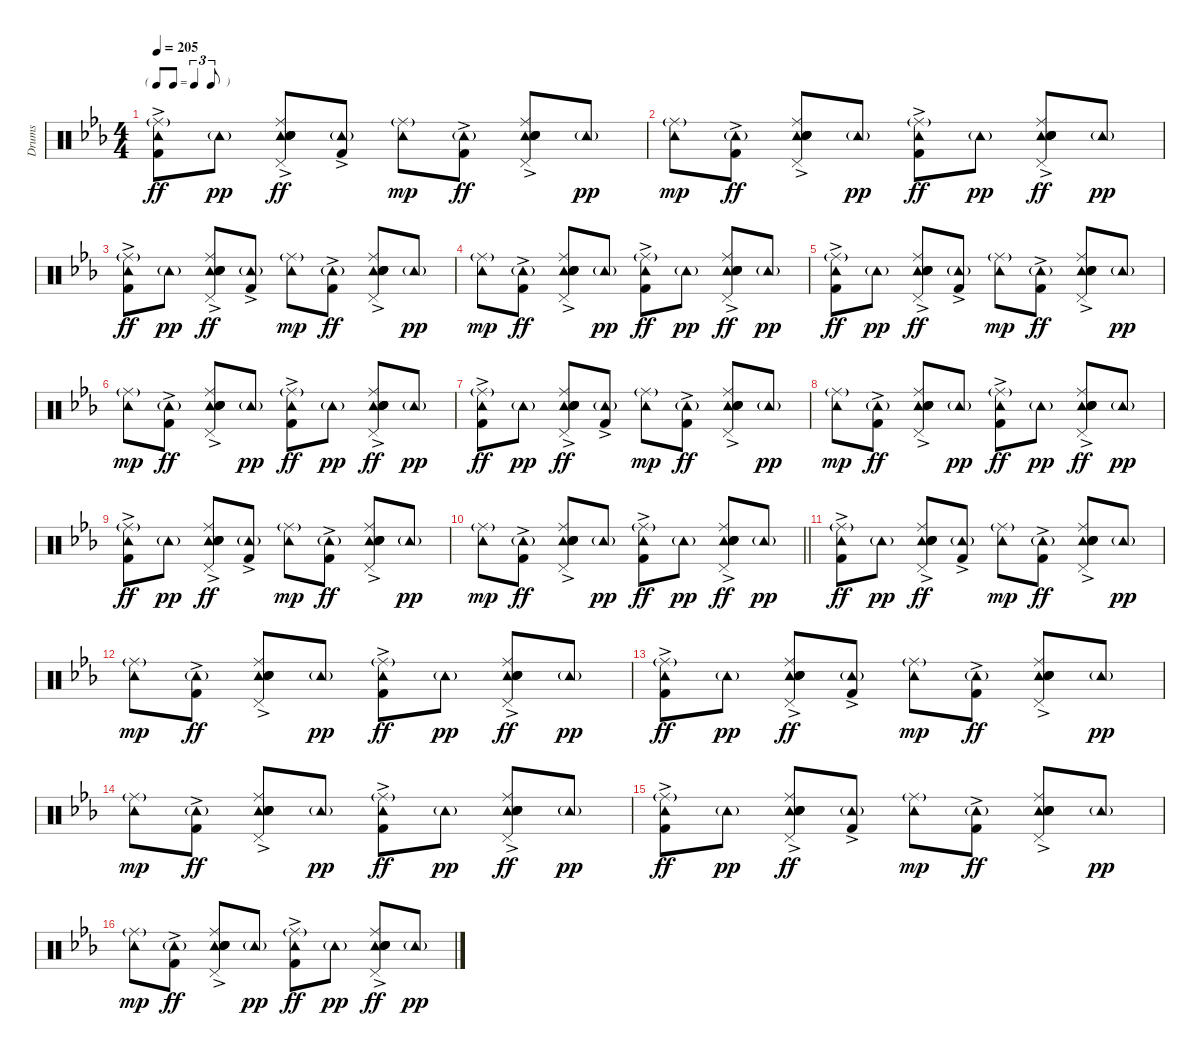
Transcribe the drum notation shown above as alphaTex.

\track ("Drums" "Drums") {instrument percussion}
\staff {score}
\articulation defaults
\ts (4 4)
\tf triplet8th
\tempo 205
\clef neutral
\ks eb
("Ride (middle)"{g} "Tambourine (hit)" "Kick (hit) 2"{ac}).8{dy ff} "Tambourine (hit)"{g}.8{dy pp} ("Ride (middle)" "Tambourine (hit)"{ac} "Hand Clap (hit)" "Electric Snare (hit)"{ac} "Snare (hit) 2" "Pedal Hi-Hat (hit)").8{dy ff} ("Tambourine (hit)"{g} "Kick (hit) 2"{ac}).8 ("Ride (middle)"{g} "Tambourine (hit)").8{dy mp} ("Tambourine (hit)"{g} "Kick (hit) 2"{ac}).8{dy ff} ("Ride (middle)" "Tambourine (hit)"{ac} "Hand Clap (hit)" "Electric Snare (hit)"{ac} "Snare (hit) 2" "Pedal Hi-Hat (hit)").8 "Tambourine (hit)"{g}.8{dy pp} |
("Ride (middle)"{g} "Tambourine (hit)").8{dy mp} ("Tambourine (hit)"{g} "Kick (hit) 2"{ac}).8{dy ff} ("Ride (middle)" "Tambourine (hit)"{ac} "Hand Clap (hit)" "Electric Snare (hit)"{ac} "Snare (hit) 2" "Pedal Hi-Hat (hit)").8 "Tambourine (hit)"{g}.8{dy pp} ("Ride (middle)"{g} "Tambourine (hit)" "Kick (hit) 2"{ac}).8{dy ff} "Tambourine (hit)"{g}.8{dy pp} ("Ride (middle)" "Tambourine (hit)"{ac} "Hand Clap (hit)" "Electric Snare (hit)"{ac} "Snare (hit) 2" "Pedal Hi-Hat (hit)").8{dy ff} "Tambourine (hit)"{g}.8{dy pp} |
("Ride (middle)"{g} "Tambourine (hit)" "Kick (hit) 2"{ac}).8{dy ff} "Tambourine (hit)"{g}.8{dy pp} ("Ride (middle)" "Tambourine (hit)"{ac} "Hand Clap (hit)" "Electric Snare (hit)"{ac} "Snare (hit) 2" "Pedal Hi-Hat (hit)").8{dy ff} ("Tambourine (hit)"{g} "Kick (hit) 2"{ac}).8 ("Ride (middle)"{g} "Tambourine (hit)").8{dy mp} ("Tambourine (hit)"{g} "Kick (hit) 2"{ac}).8{dy ff} ("Ride (middle)" "Tambourine (hit)"{ac} "Hand Clap (hit)" "Electric Snare (hit)"{ac} "Snare (hit) 2" "Pedal Hi-Hat (hit)").8 "Tambourine (hit)"{g}.8{dy pp} |
("Ride (middle)"{g} "Tambourine (hit)").8{dy mp} ("Tambourine (hit)"{g} "Kick (hit) 2"{ac}).8{dy ff} ("Ride (middle)" "Tambourine (hit)"{ac} "Hand Clap (hit)" "Electric Snare (hit)"{ac} "Snare (hit) 2" "Pedal Hi-Hat (hit)").8 "Tambourine (hit)"{g}.8{dy pp} ("Ride (middle)"{g} "Tambourine (hit)" "Kick (hit) 2"{ac}).8{dy ff} "Tambourine (hit)"{g}.8{dy pp} ("Ride (middle)" "Tambourine (hit)"{ac} "Hand Clap (hit)" "Electric Snare (hit)"{ac} "Snare (hit) 2" "Pedal Hi-Hat (hit)").8{dy ff} "Tambourine (hit)"{g}.8{dy pp} |
("Ride (middle)"{g} "Tambourine (hit)" "Kick (hit) 2"{ac}).8{dy ff} "Tambourine (hit)"{g}.8{dy pp} ("Ride (middle)" "Tambourine (hit)"{ac} "Hand Clap (hit)" "Electric Snare (hit)"{ac} "Snare (hit) 2" "Pedal Hi-Hat (hit)").8{dy ff} ("Tambourine (hit)"{g} "Kick (hit) 2"{ac}).8 ("Ride (middle)"{g} "Tambourine (hit)").8{dy mp} ("Tambourine (hit)"{g} "Kick (hit) 2"{ac}).8{dy ff} ("Ride (middle)" "Tambourine (hit)"{ac} "Hand Clap (hit)" "Electric Snare (hit)"{ac} "Snare (hit) 2" "Pedal Hi-Hat (hit)").8 "Tambourine (hit)"{g}.8{dy pp} |
("Ride (middle)"{g} "Tambourine (hit)").8{dy mp} ("Tambourine (hit)"{g} "Kick (hit) 2"{ac}).8{dy ff} ("Ride (middle)" "Tambourine (hit)"{ac} "Hand Clap (hit)" "Electric Snare (hit)"{ac} "Snare (hit) 2" "Pedal Hi-Hat (hit)").8 "Tambourine (hit)"{g}.8{dy pp} ("Ride (middle)"{g} "Tambourine (hit)" "Kick (hit) 2"{ac}).8{dy ff} "Tambourine (hit)"{g}.8{dy pp} ("Ride (middle)" "Tambourine (hit)"{ac} "Hand Clap (hit)" "Electric Snare (hit)"{ac} "Snare (hit) 2" "Pedal Hi-Hat (hit)").8{dy ff} "Tambourine (hit)"{g}.8{dy pp} |
("Ride (middle)"{g} "Tambourine (hit)" "Kick (hit) 2"{ac}).8{dy ff} "Tambourine (hit)"{g}.8{dy pp} ("Ride (middle)" "Tambourine (hit)"{ac} "Hand Clap (hit)" "Electric Snare (hit)"{ac} "Snare (hit) 2" "Pedal Hi-Hat (hit)").8{dy ff} ("Tambourine (hit)"{g} "Kick (hit) 2"{ac}).8 ("Ride (middle)"{g} "Tambourine (hit)").8{dy mp} ("Tambourine (hit)"{g} "Kick (hit) 2"{ac}).8{dy ff} ("Ride (middle)" "Tambourine (hit)"{ac} "Hand Clap (hit)" "Electric Snare (hit)"{ac} "Snare (hit) 2" "Pedal Hi-Hat (hit)").8 "Tambourine (hit)"{g}.8{dy pp} |
("Ride (middle)"{g} "Tambourine (hit)").8{dy mp} ("Tambourine (hit)"{g} "Kick (hit) 2"{ac}).8{dy ff} ("Ride (middle)" "Tambourine (hit)"{ac} "Hand Clap (hit)" "Electric Snare (hit)"{ac} "Snare (hit) 2" "Pedal Hi-Hat (hit)").8 "Tambourine (hit)"{g}.8{dy pp} ("Ride (middle)"{g} "Tambourine (hit)" "Kick (hit) 2"{ac}).8{dy ff} "Tambourine (hit)"{g}.8{dy pp} ("Ride (middle)" "Tambourine (hit)"{ac} "Hand Clap (hit)" "Electric Snare (hit)"{ac} "Snare (hit) 2" "Pedal Hi-Hat (hit)").8{dy ff} "Tambourine (hit)"{g}.8{dy pp} |
("Ride (middle)"{g} "Tambourine (hit)" "Kick (hit) 2"{ac}).8{dy ff} "Tambourine (hit)"{g}.8{dy pp} ("Ride (middle)" "Tambourine (hit)"{ac} "Hand Clap (hit)" "Electric Snare (hit)"{ac} "Snare (hit) 2" "Pedal Hi-Hat (hit)").8{dy ff} ("Tambourine (hit)"{g} "Kick (hit) 2"{ac}).8 ("Ride (middle)"{g} "Tambourine (hit)").8{dy mp} ("Tambourine (hit)"{g} "Kick (hit) 2"{ac}).8{dy ff} ("Ride (middle)" "Tambourine (hit)"{ac} "Hand Clap (hit)" "Electric Snare (hit)"{ac} "Snare (hit) 2" "Pedal Hi-Hat (hit)").8 "Tambourine (hit)"{g}.8{dy pp} |
\barLineRight lightlight
("Ride (middle)"{g} "Tambourine (hit)").8{dy mp} ("Tambourine (hit)"{g} "Kick (hit) 2"{ac}).8{dy ff} ("Ride (middle)" "Tambourine (hit)"{ac} "Hand Clap (hit)" "Electric Snare (hit)"{ac} "Snare (hit) 2" "Pedal Hi-Hat (hit)").8 "Tambourine (hit)"{g}.8{dy pp} ("Ride (middle)"{g} "Tambourine (hit)" "Kick (hit) 2"{ac}).8{dy ff} "Tambourine (hit)"{g}.8{dy pp} ("Ride (middle)" "Tambourine (hit)"{ac} "Hand Clap (hit)" "Electric Snare (hit)"{ac} "Snare (hit) 2" "Pedal Hi-Hat (hit)").8{dy ff} "Tambourine (hit)"{g}.8{dy pp} |
("Ride (middle)"{g} "Tambourine (hit)" "Kick (hit) 2"{ac}).8{dy ff} "Tambourine (hit)"{g}.8{dy pp} ("Ride (middle)" "Tambourine (hit)"{ac} "Hand Clap (hit)" "Electric Snare (hit)"{ac} "Snare (hit) 2" "Pedal Hi-Hat (hit)").8{dy ff} ("Tambourine (hit)"{g} "Kick (hit) 2"{ac}).8 ("Ride (middle)"{g} "Tambourine (hit)").8{dy mp} ("Tambourine (hit)"{g} "Kick (hit) 2"{ac}).8{dy ff} ("Ride (middle)" "Tambourine (hit)"{ac} "Hand Clap (hit)" "Electric Snare (hit)"{ac} "Snare (hit) 2" "Pedal Hi-Hat (hit)").8 "Tambourine (hit)"{g}.8{dy pp} |
("Ride (middle)"{g} "Tambourine (hit)").8{dy mp} ("Tambourine (hit)"{g} "Kick (hit) 2"{ac}).8{dy ff} ("Ride (middle)" "Tambourine (hit)"{ac} "Hand Clap (hit)" "Electric Snare (hit)"{ac} "Snare (hit) 2" "Pedal Hi-Hat (hit)").8 "Tambourine (hit)"{g}.8{dy pp} ("Ride (middle)"{g} "Tambourine (hit)" "Kick (hit) 2"{ac}).8{dy ff} "Tambourine (hit)"{g}.8{dy pp} ("Ride (middle)" "Tambourine (hit)"{ac} "Hand Clap (hit)" "Electric Snare (hit)"{ac} "Snare (hit) 2" "Pedal Hi-Hat (hit)").8{dy ff} "Tambourine (hit)"{g}.8{dy pp} |
("Ride (middle)"{g} "Tambourine (hit)" "Kick (hit) 2"{ac}).8{dy ff} "Tambourine (hit)"{g}.8{dy pp} ("Ride (middle)" "Tambourine (hit)"{ac} "Hand Clap (hit)" "Electric Snare (hit)"{ac} "Snare (hit) 2" "Pedal Hi-Hat (hit)").8{dy ff} ("Tambourine (hit)"{g} "Kick (hit) 2"{ac}).8 ("Ride (middle)"{g} "Tambourine (hit)").8{dy mp} ("Tambourine (hit)"{g} "Kick (hit) 2"{ac}).8{dy ff} ("Ride (middle)" "Tambourine (hit)"{ac} "Hand Clap (hit)" "Electric Snare (hit)"{ac} "Snare (hit) 2" "Pedal Hi-Hat (hit)").8 "Tambourine (hit)"{g}.8{dy pp} |
("Ride (middle)"{g} "Tambourine (hit)").8{dy mp} ("Tambourine (hit)"{g} "Kick (hit) 2"{ac}).8{dy ff} ("Ride (middle)" "Tambourine (hit)"{ac} "Hand Clap (hit)" "Electric Snare (hit)"{ac} "Snare (hit) 2" "Pedal Hi-Hat (hit)").8 "Tambourine (hit)"{g}.8{dy pp} ("Ride (middle)"{g} "Tambourine (hit)" "Kick (hit) 2"{ac}).8{dy ff} "Tambourine (hit)"{g}.8{dy pp} ("Ride (middle)" "Tambourine (hit)"{ac} "Hand Clap (hit)" "Electric Snare (hit)"{ac} "Snare (hit) 2" "Pedal Hi-Hat (hit)").8{dy ff} "Tambourine (hit)"{g}.8{dy pp} |
("Ride (middle)"{g} "Tambourine (hit)" "Kick (hit) 2"{ac}).8{dy ff} "Tambourine (hit)"{g}.8{dy pp} ("Ride (middle)" "Tambourine (hit)"{ac} "Hand Clap (hit)" "Electric Snare (hit)"{ac} "Snare (hit) 2" "Pedal Hi-Hat (hit)").8{dy ff} ("Tambourine (hit)"{g} "Kick (hit) 2"{ac}).8 ("Ride (middle)"{g} "Tambourine (hit)").8{dy mp} ("Tambourine (hit)"{g} "Kick (hit) 2"{ac}).8{dy ff} ("Ride (middle)" "Tambourine (hit)"{ac} "Hand Clap (hit)" "Electric Snare (hit)"{ac} "Snare (hit) 2" "Pedal Hi-Hat (hit)").8 "Tambourine (hit)"{g}.8{dy pp} |
("Ride (middle)"{g} "Tambourine (hit)").8{dy mp} ("Tambourine (hit)"{g} "Kick (hit) 2"{ac}).8{dy ff} ("Ride (middle)" "Tambourine (hit)"{ac} "Hand Clap (hit)" "Electric Snare (hit)"{ac} "Snare (hit) 2" "Pedal Hi-Hat (hit)").8 "Tambourine (hit)"{g}.8{dy pp} ("Ride (middle)"{g} "Tambourine (hit)" "Kick (hit) 2"{ac}).8{dy ff} "Tambourine (hit)"{g}.8{dy pp} ("Ride (middle)" "Tambourine (hit)"{ac} "Hand Clap (hit)" "Electric Snare (hit)"{ac} "Snare (hit) 2" "Pedal Hi-Hat (hit)").8{dy ff} "Tambourine (hit)"{g}.8{dy pp}
